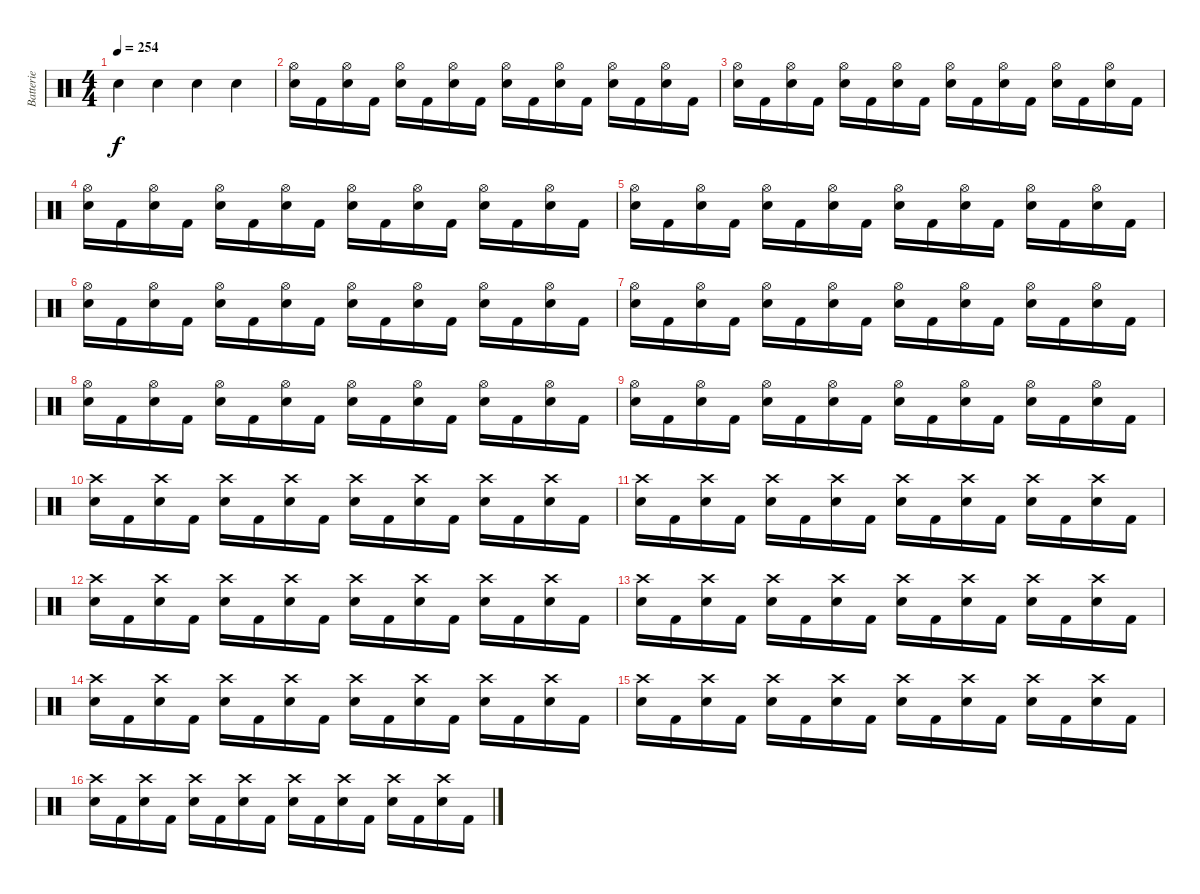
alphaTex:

\track ("Batterie" "Batterie") {instrument percussion}
\staff {score}
\articulation defaults
\ts (4 4)
\tempo 254
\clef neutral
\ks c "Electric Snare (hit)".4{dy f} "Electric Snare (hit)".4 "Electric Snare (hit)".4 "Electric Snare (hit)".4
|
("Hi-Hat (open)" "Electric Snare (hit)").16 "Kick (hit) 2".16 ("Hi-Hat (open)" "Electric Snare (hit)").16 "Kick (hit) 2".16 ("Hi-Hat (open)" "Electric Snare (hit)").16 "Kick (hit) 2".16 ("Hi-Hat (open)" "Electric Snare (hit)").16 "Kick (hit) 2".16 ("Hi-Hat (open)" "Electric Snare (hit)").16 "Kick (hit) 2".16 ("Hi-Hat (open)" "Electric Snare (hit)").16 "Kick (hit) 2".16 ("Hi-Hat (open)" "Electric Snare (hit)").16 "Kick (hit) 2".16 ("Hi-Hat (open)" "Electric Snare (hit)").16 "Kick (hit) 2".16 |
("Hi-Hat (open)" "Electric Snare (hit)").16 "Kick (hit) 2".16 ("Hi-Hat (open)" "Electric Snare (hit)").16 "Kick (hit) 2".16 ("Hi-Hat (open)" "Electric Snare (hit)").16 "Kick (hit) 2".16 ("Hi-Hat (open)" "Electric Snare (hit)").16 "Kick (hit) 2".16 ("Hi-Hat (open)" "Electric Snare (hit)").16 "Kick (hit) 2".16 ("Hi-Hat (open)" "Electric Snare (hit)").16 "Kick (hit) 2".16 ("Hi-Hat (open)" "Electric Snare (hit)").16 "Kick (hit) 2".16 ("Hi-Hat (open)" "Electric Snare (hit)").16 "Kick (hit) 2".16 |
("Hi-Hat (open)" "Electric Snare (hit)").16 "Kick (hit) 2".16 ("Hi-Hat (open)" "Electric Snare (hit)").16 "Kick (hit) 2".16 ("Hi-Hat (open)" "Electric Snare (hit)").16 "Kick (hit) 2".16 ("Hi-Hat (open)" "Electric Snare (hit)").16 "Kick (hit) 2".16 ("Hi-Hat (open)" "Electric Snare (hit)").16 "Kick (hit) 2".16 ("Hi-Hat (open)" "Electric Snare (hit)").16 "Kick (hit) 2".16 ("Hi-Hat (open)" "Electric Snare (hit)").16 "Kick (hit) 2".16 ("Hi-Hat (open)" "Electric Snare (hit)").16 "Kick (hit) 2".16 |
("Hi-Hat (open)" "Electric Snare (hit)").16 "Kick (hit) 2".16 ("Hi-Hat (open)" "Electric Snare (hit)").16 "Kick (hit) 2".16 ("Hi-Hat (open)" "Electric Snare (hit)").16 "Kick (hit) 2".16 ("Hi-Hat (open)" "Electric Snare (hit)").16 "Kick (hit) 2".16 ("Hi-Hat (open)" "Electric Snare (hit)").16 "Kick (hit) 2".16 ("Hi-Hat (open)" "Electric Snare (hit)").16 "Kick (hit) 2".16 ("Hi-Hat (open)" "Electric Snare (hit)").16 "Kick (hit) 2".16 ("Hi-Hat (open)" "Electric Snare (hit)").16 "Kick (hit) 2".16 |
("Hi-Hat (open)" "Electric Snare (hit)").16 "Kick (hit) 2".16 ("Hi-Hat (open)" "Electric Snare (hit)").16 "Kick (hit) 2".16 ("Hi-Hat (open)" "Electric Snare (hit)").16 "Kick (hit) 2".16 ("Hi-Hat (open)" "Electric Snare (hit)").16 "Kick (hit) 2".16 ("Hi-Hat (open)" "Electric Snare (hit)").16 "Kick (hit) 2".16 ("Hi-Hat (open)" "Electric Snare (hit)").16 "Kick (hit) 2".16 ("Hi-Hat (open)" "Electric Snare (hit)").16 "Kick (hit) 2".16 ("Hi-Hat (open)" "Electric Snare (hit)").16 "Kick (hit) 2".16 |
("Hi-Hat (open)" "Electric Snare (hit)").16 "Kick (hit) 2".16 ("Hi-Hat (open)" "Electric Snare (hit)").16 "Kick (hit) 2".16 ("Hi-Hat (open)" "Electric Snare (hit)").16 "Kick (hit) 2".16 ("Hi-Hat (open)" "Electric Snare (hit)").16 "Kick (hit) 2".16 ("Hi-Hat (open)" "Electric Snare (hit)").16 "Kick (hit) 2".16 ("Hi-Hat (open)" "Electric Snare (hit)").16 "Kick (hit) 2".16 ("Hi-Hat (open)" "Electric Snare (hit)").16 "Kick (hit) 2".16 ("Hi-Hat (open)" "Electric Snare (hit)").16 "Kick (hit) 2".16 |
("Hi-Hat (open)" "Electric Snare (hit)").16 "Kick (hit) 2".16 ("Hi-Hat (open)" "Electric Snare (hit)").16 "Kick (hit) 2".16 ("Hi-Hat (open)" "Electric Snare (hit)").16 "Kick (hit) 2".16 ("Hi-Hat (open)" "Electric Snare (hit)").16 "Kick (hit) 2".16 ("Hi-Hat (open)" "Electric Snare (hit)").16 "Kick (hit) 2".16 ("Hi-Hat (open)" "Electric Snare (hit)").16 "Kick (hit) 2".16 ("Hi-Hat (open)" "Electric Snare (hit)").16 "Kick (hit) 2".16 ("Hi-Hat (open)" "Electric Snare (hit)").16 "Kick (hit) 2".16 |
("Hi-Hat (open)" "Electric Snare (hit)").16 "Kick (hit) 2".16 ("Hi-Hat (open)" "Electric Snare (hit)").16 "Kick (hit) 2".16 ("Hi-Hat (open)" "Electric Snare (hit)").16 "Kick (hit) 2".16 ("Hi-Hat (open)" "Electric Snare (hit)").16 "Kick (hit) 2".16 ("Hi-Hat (open)" "Electric Snare (hit)").16 "Kick (hit) 2".16 ("Hi-Hat (open)" "Electric Snare (hit)").16 "Kick (hit) 2".16 ("Hi-Hat (open)" "Electric Snare (hit)").16 "Kick (hit) 2".16 ("Hi-Hat (open)" "Electric Snare (hit)").16 "Kick (hit) 2".16 |
("Crash high (hit)" "Electric Snare (hit)").16 "Kick (hit) 2".16 ("Crash high (hit)" "Electric Snare (hit)").16 "Kick (hit) 2".16 ("Crash high (hit)" "Electric Snare (hit)").16 "Kick (hit) 2".16 ("Crash high (hit)" "Electric Snare (hit)").16 "Kick (hit) 2".16 ("Crash high (hit)" "Electric Snare (hit)").16 "Kick (hit) 2".16 ("Crash high (hit)" "Electric Snare (hit)").16 "Kick (hit) 2".16 ("Crash high (hit)" "Electric Snare (hit)").16 "Kick (hit) 2".16 ("Crash high (hit)" "Electric Snare (hit)").16 "Kick (hit) 2".16 |
("Crash high (hit)" "Electric Snare (hit)").16 "Kick (hit) 2".16 ("Crash high (hit)" "Electric Snare (hit)").16 "Kick (hit) 2".16 ("Crash high (hit)" "Electric Snare (hit)").16 "Kick (hit) 2".16 ("Crash high (hit)" "Electric Snare (hit)").16 "Kick (hit) 2".16 ("Crash high (hit)" "Electric Snare (hit)").16 "Kick (hit) 2".16 ("Crash high (hit)" "Electric Snare (hit)").16 "Kick (hit) 2".16 ("Crash high (hit)" "Electric Snare (hit)").16 "Kick (hit) 2".16 ("Crash high (hit)" "Electric Snare (hit)").16 "Kick (hit) 2".16 |
("Crash high (hit)" "Electric Snare (hit)").16 "Kick (hit) 2".16 ("Crash high (hit)" "Electric Snare (hit)").16 "Kick (hit) 2".16 ("Crash high (hit)" "Electric Snare (hit)").16 "Kick (hit) 2".16 ("Crash high (hit)" "Electric Snare (hit)").16 "Kick (hit) 2".16 ("Crash high (hit)" "Electric Snare (hit)").16 "Kick (hit) 2".16 ("Crash high (hit)" "Electric Snare (hit)").16 "Kick (hit) 2".16 ("Crash high (hit)" "Electric Snare (hit)").16 "Kick (hit) 2".16 ("Crash high (hit)" "Electric Snare (hit)").16 "Kick (hit) 2".16 |
("Crash high (hit)" "Electric Snare (hit)").16 "Kick (hit) 2".16 ("Crash high (hit)" "Electric Snare (hit)").16 "Kick (hit) 2".16 ("Crash high (hit)" "Electric Snare (hit)").16 "Kick (hit) 2".16 ("Crash high (hit)" "Electric Snare (hit)").16 "Kick (hit) 2".16 ("Crash high (hit)" "Electric Snare (hit)").16 "Kick (hit) 2".16 ("Crash high (hit)" "Electric Snare (hit)").16 "Kick (hit) 2".16 ("Crash high (hit)" "Electric Snare (hit)").16 "Kick (hit) 2".16 ("Crash high (hit)" "Electric Snare (hit)").16 "Kick (hit) 2".16 |
("Crash high (hit)" "Electric Snare (hit)").16 "Kick (hit) 2".16 ("Crash high (hit)" "Electric Snare (hit)").16 "Kick (hit) 2".16 ("Crash high (hit)" "Electric Snare (hit)").16 "Kick (hit) 2".16 ("Crash high (hit)" "Electric Snare (hit)").16 "Kick (hit) 2".16 ("Crash high (hit)" "Electric Snare (hit)").16 "Kick (hit) 2".16 ("Crash high (hit)" "Electric Snare (hit)").16 "Kick (hit) 2".16 ("Crash high (hit)" "Electric Snare (hit)").16 "Kick (hit) 2".16 ("Crash high (hit)" "Electric Snare (hit)").16 "Kick (hit) 2".16 |
("Crash high (hit)" "Electric Snare (hit)").16 "Kick (hit) 2".16 ("Crash high (hit)" "Electric Snare (hit)").16 "Kick (hit) 2".16 ("Crash high (hit)" "Electric Snare (hit)").16 "Kick (hit) 2".16 ("Crash high (hit)" "Electric Snare (hit)").16 "Kick (hit) 2".16 ("Crash high (hit)" "Electric Snare (hit)").16 "Kick (hit) 2".16 ("Crash high (hit)" "Electric Snare (hit)").16 "Kick (hit) 2".16 ("Crash high (hit)" "Electric Snare (hit)").16 "Kick (hit) 2".16 ("Crash high (hit)" "Electric Snare (hit)").16 "Kick (hit) 2".16 |
("Crash high (hit)" "Electric Snare (hit)").16 "Kick (hit) 2".16 ("Crash high (hit)" "Electric Snare (hit)").16 "Kick (hit) 2".16 ("Crash high (hit)" "Electric Snare (hit)").16 "Kick (hit) 2".16 ("Crash high (hit)" "Electric Snare (hit)").16 "Kick (hit) 2".16 ("Crash high (hit)" "Electric Snare (hit)").16 "Kick (hit) 2".16 ("Crash high (hit)" "Electric Snare (hit)").16 "Kick (hit) 2".16 ("Crash high (hit)" "Electric Snare (hit)").16 "Kick (hit) 2".16 ("Crash high (hit)" "Electric Snare (hit)").16 "Kick (hit) 2".16
